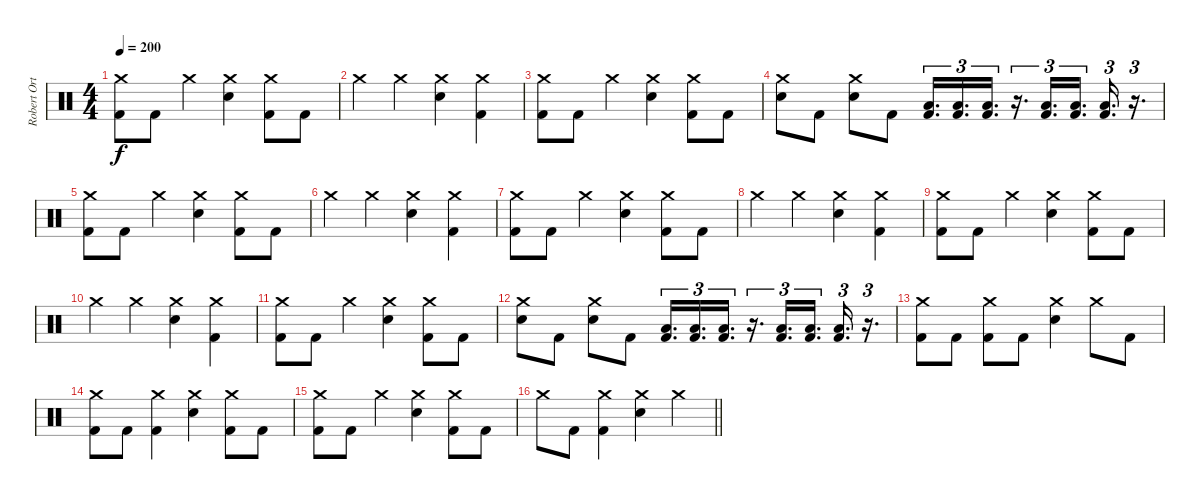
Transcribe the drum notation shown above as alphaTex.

\track ("Robert Ortiz - Drums" "Robert Ort") {instrument percussion}
\staff {score}
\articulation defaults
\ts (4 4)
\tempo 200
\clef neutral
\ks c
("Crash medium (hit)" "Kick (hit) 2").8{dy f} "Kick (hit) 2".8 "Crash medium (hit)".4 ("Crash medium (hit)" "Electric Snare (hit)").4 ("Crash medium (hit)" "Kick (hit) 2").8 "Kick (hit) 2".8 |
"Crash medium (hit)".4 "Crash medium (hit)".4 ("Crash medium (hit)" "Electric Snare (hit)").4 ("Crash medium (hit)" "Kick (hit) 2").4 |
("Crash medium (hit)" "Kick (hit) 2").8 "Kick (hit) 2".8 "Crash medium (hit)".4 ("Crash medium (hit)" "Electric Snare (hit)").4 ("Crash medium (hit)" "Kick (hit) 2").8 "Kick (hit) 2".8 |
("Crash medium (hit)" "Electric Snare (hit)").8 "Kick (hit) 2".8 ("Crash medium (hit)" "Electric Snare (hit)").8 "Kick (hit) 2".8 ("Low Floor Tom (hit)" "Kick (hit) 2").16{d tu (3 2)} ("Low Floor Tom (hit)" "Kick (hit) 2").16{d tu (3 2)} ("Low Floor Tom (hit)" "Kick (hit) 2").16{d tu (3 2)} r.16{d tu (3 2)} ("Low Floor Tom (hit)" "Kick (hit) 2").16{d tu (3 2)} ("Low Floor Tom (hit)" "Kick (hit) 2").16{d tu (3 2)} ("Low Floor Tom (hit)" "Kick (hit) 2").16{d tu (3 2)} r.16{d tu (3 2)} |
("Crash medium (hit)" "Kick (hit) 2").8 "Kick (hit) 2".8 "Crash medium (hit)".4 ("Crash medium (hit)" "Electric Snare (hit)").4 ("Crash medium (hit)" "Kick (hit) 2").8 "Kick (hit) 2".8 |
"Crash medium (hit)".4 "Crash medium (hit)".4 ("Crash medium (hit)" "Electric Snare (hit)").4 ("Crash medium (hit)" "Kick (hit) 2").4 |
("Crash medium (hit)" "Kick (hit) 2").8 "Kick (hit) 2".8 "Crash medium (hit)".4 ("Crash medium (hit)" "Electric Snare (hit)").4 ("Crash medium (hit)" "Kick (hit) 2").8 "Kick (hit) 2".8 |
"Crash medium (hit)".4 "Crash medium (hit)".4 ("Crash medium (hit)" "Electric Snare (hit)").4 ("Crash medium (hit)" "Kick (hit) 2").4 |
("Crash medium (hit)" "Kick (hit) 2").8 "Kick (hit) 2".8 "Crash medium (hit)".4 ("Crash medium (hit)" "Electric Snare (hit)").4 ("Crash medium (hit)" "Kick (hit) 2").8 "Kick (hit) 2".8 |
"Crash medium (hit)".4 "Crash medium (hit)".4 ("Crash medium (hit)" "Electric Snare (hit)").4 ("Crash medium (hit)" "Kick (hit) 2").4 |
("Crash medium (hit)" "Kick (hit) 2").8 "Kick (hit) 2".8 "Crash medium (hit)".4 ("Crash medium (hit)" "Electric Snare (hit)").4 ("Crash medium (hit)" "Kick (hit) 2").8 "Kick (hit) 2".8 |
("Crash medium (hit)" "Electric Snare (hit)").8 "Kick (hit) 2".8 ("Crash medium (hit)" "Electric Snare (hit)").8 "Kick (hit) 2".8 ("Low Floor Tom (hit)" "Kick (hit) 2").16{d tu (3 2)} ("Low Floor Tom (hit)" "Kick (hit) 2").16{d tu (3 2)} ("Low Floor Tom (hit)" "Kick (hit) 2").16{d tu (3 2)} r.16{d tu (3 2)} ("Low Floor Tom (hit)" "Kick (hit) 2").16{d tu (3 2)} ("Low Floor Tom (hit)" "Kick (hit) 2").16{d tu (3 2)} ("Low Floor Tom (hit)" "Kick (hit) 2").16{d tu (3 2)} r.16{d tu (3 2)} |
("Crash medium (hit)" "Kick (hit) 2").8 "Kick (hit) 2".8 ("Crash medium (hit)" "Kick (hit) 2").8 "Kick (hit) 2".8 ("Crash medium (hit)" "Electric Snare (hit)").4 "Crash medium (hit)".8 "Kick (hit) 2".8 |
("Crash medium (hit)" "Kick (hit) 2").8 "Kick (hit) 2".8 ("Crash medium (hit)" "Kick (hit) 2").4 ("Crash medium (hit)" "Electric Snare (hit)").4 ("Crash medium (hit)" "Kick (hit) 2").8 "Kick (hit) 2".8 |
("Crash medium (hit)" "Kick (hit) 2").8 "Kick (hit) 2".8 "Crash medium (hit)".4 ("Crash medium (hit)" "Electric Snare (hit)").4 ("Crash medium (hit)" "Kick (hit) 2").8 "Kick (hit) 2".8 |
\barLineRight lightlight "Crash medium (hit)".8 "Kick (hit) 2".8
("Crash medium (hit)" "Kick (hit) 2").4 ("Crash medium (hit)" "Electric Snare (hit)").4 "Crash medium (hit)".4
